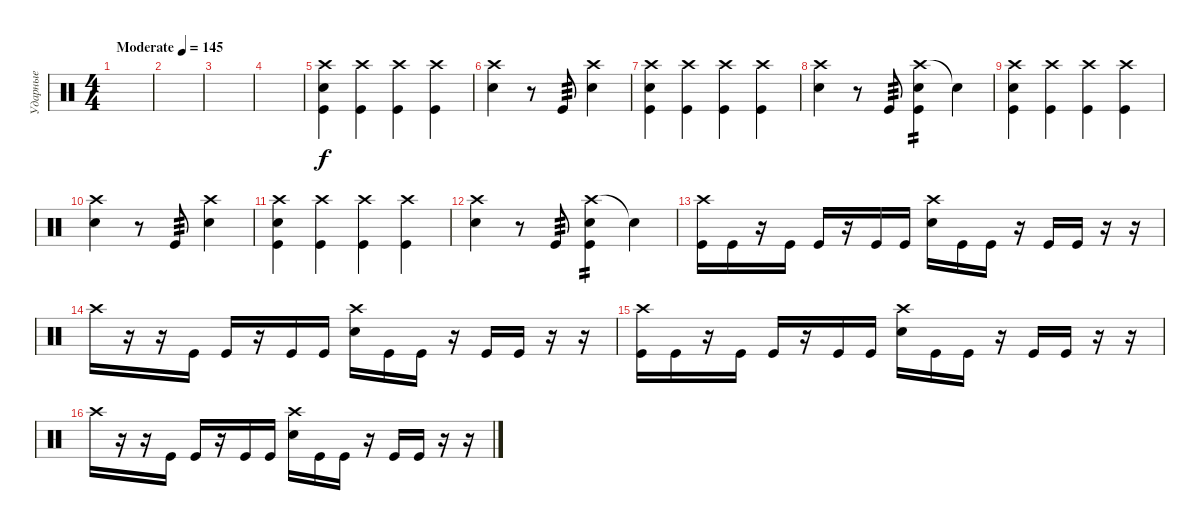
\track ("Ударные" "Ударные") {instrument percussion}
\staff {score}
\articulation defaults
\ts (4 4)
\tempo (145 "Moderate")
\clef neutral
\ks c
|
|
|
|
("Crash high (hit)" "Kick (hit)" "Snare (hit) 2").4 ("Crash high (hit)" "Kick (hit)").4 ("Crash high (hit)" "Kick (hit)").4 ("Crash high (hit)" "Kick (hit)").4 |
("Crash high (hit)" "Snare (hit) 2").4 r.8 "Kick (hit)".8{tp 3} ("Crash high (hit)" "Snare (hit) 2").4 |
("Crash high (hit)" "Kick (hit)" "Snare (hit) 2").4 ("Crash high (hit)" "Kick (hit)").4 ("Crash high (hit)" "Kick (hit)").4 ("Crash high (hit)" "Kick (hit)").4 |
("Crash high (hit)" "Snare (hit) 2").4 r.8 "Kick (hit)".8{tp 3} ("Crash high (hit)" "Kick (hit)" "Snare (hit) 2").4{tp 2} "Snare (hit)"{t}.4 |
("Crash high (hit)" "Kick (hit)" "Snare (hit) 2").4 ("Crash high (hit)" "Kick (hit)").4 ("Crash high (hit)" "Kick (hit)").4 ("Crash high (hit)" "Kick (hit)").4 |
("Crash high (hit)" "Snare (hit) 2").4 r.8 "Kick (hit)".8{tp 3} ("Crash high (hit)" "Snare (hit) 2").4 |
("Crash high (hit)" "Kick (hit)" "Snare (hit) 2").4 ("Crash high (hit)" "Kick (hit)").4 ("Crash high (hit)" "Kick (hit)").4 ("Crash high (hit)" "Kick (hit)").4 |
("Crash high (hit)" "Snare (hit) 2").4 r.8 "Kick (hit)".8{tp 3} ("Crash high (hit)" "Kick (hit)" "Snare (hit) 2").4{tp 2} "Snare (hit)"{t}.4 |
("Crash high (hit)" "Kick (hit)").16 "Kick (hit)".16 r.16 "Kick (hit)".16 "Kick (hit)".16 r.16 "Kick (hit)".16 "Kick (hit)".16 ("Crash high (hit)" "Electric Snare (hit)").16 "Kick (hit)".16 "Kick (hit)".16 r.16 "Kick (hit)".16 "Kick (hit)".16 r.16 r.16 |
"Crash high (hit)".16 r.16 r.16 "Kick (hit)".16 "Kick (hit)".16 r.16 "Kick (hit)".16 "Kick (hit)".16 ("Crash high (hit)" "Electric Snare (hit)").16 "Kick (hit)".16 "Kick (hit)".16 r.16 "Kick (hit)".16 "Kick (hit)".16 r.16 r.16 |
("Crash high (hit)" "Kick (hit)").16 "Kick (hit)".16 r.16 "Kick (hit)".16 "Kick (hit)".16 r.16 "Kick (hit)".16 "Kick (hit)".16 ("Crash high (hit)" "Electric Snare (hit)").16 "Kick (hit)".16 "Kick (hit)".16 r.16 "Kick (hit)".16 "Kick (hit)".16 r.16 r.16 |
"Crash high (hit)".16 r.16 r.16 "Kick (hit)".16 "Kick (hit)".16 r.16 "Kick (hit)".16 "Kick (hit)".16 ("Crash high (hit)" "Electric Snare (hit)").16 "Kick (hit)".16 "Kick (hit)".16 r.16 "Kick (hit)".16 "Kick (hit)".16 r.16 r.16
